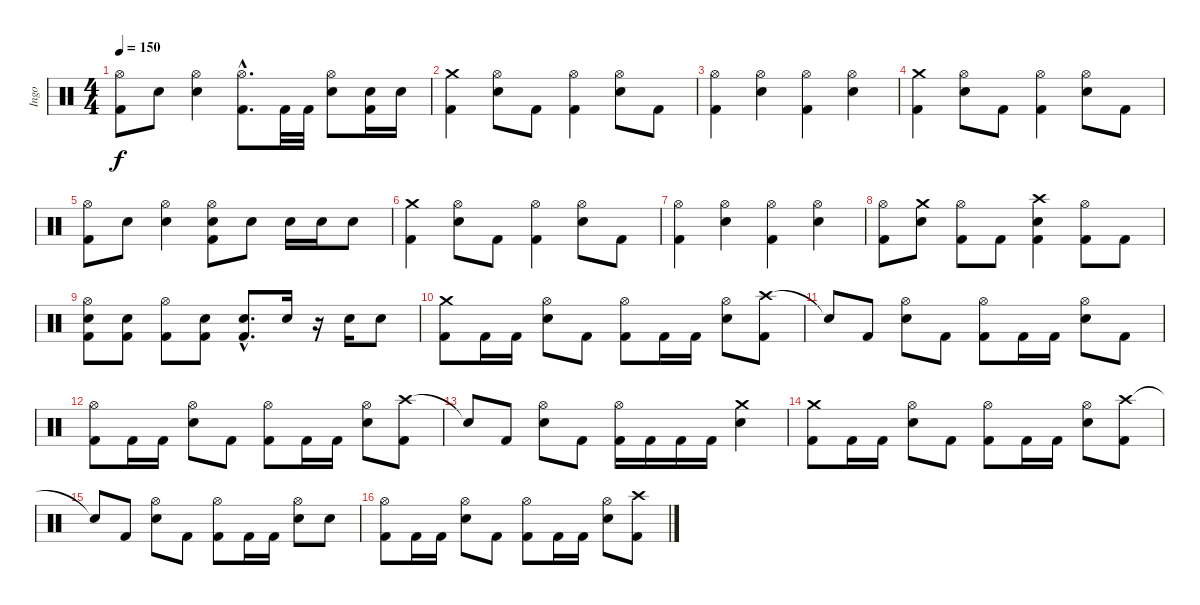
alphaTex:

\track ("Ingo" "Ingo") {instrument percussion}
\staff {score}
\articulation defaults
\ts (4 4)
\tempo 150
\clef neutral
\ks c
("Hi-Hat (open)" "Kick (hit) 2").8{dy f} "Electric Snare (hit)".8 ("Hi-Hat (open)" "Electric Snare (hit)").4 ("Hi-Hat (open)"{hac} "Kick (hit) 2"{hac}).8{d} "Kick (hit) 2".32 "Kick (hit) 2".32 ("Hi-Hat (open)" "Electric Snare (hit)").8 ("Electric Snare (hit)" "Kick (hit) 2").16 "Electric Snare (hit)".16 |
("Crash medium (hit)" "Kick (hit) 2").4 ("Hi-Hat (open)" "Electric Snare (hit)").8 "Kick (hit) 2".8 ("Hi-Hat (open)" "Kick (hit) 2").4 ("Hi-Hat (open)" "Electric Snare (hit)").8 "Kick (hit) 2".8 |
("Hi-Hat (open)" "Kick (hit) 2").4 ("Hi-Hat (open)" "Electric Snare (hit)").4 ("Hi-Hat (open)" "Kick (hit) 2").4 ("Hi-Hat (open)" "Electric Snare (hit)").4 |
("Crash medium (hit)" "Kick (hit) 2").4 ("Hi-Hat (open)" "Electric Snare (hit)").8 "Kick (hit) 2".8 ("Hi-Hat (open)" "Kick (hit) 2").4 ("Hi-Hat (open)" "Electric Snare (hit)").8 "Kick (hit) 2".8 |
("Hi-Hat (open)" "Kick (hit) 2").8 "Electric Snare (hit)".8 ("Hi-Hat (open)" "Electric Snare (hit)").4 ("Hi-Hat (open)" "Electric Snare (hit)" "Kick (hit) 2").8 "Electric Snare (hit)".8 "Electric Snare (hit)".16 "Electric Snare (hit)".16 "Electric Snare (hit)".8 |
("Crash medium (hit)" "Kick (hit) 2").4 ("Hi-Hat (open)" "Electric Snare (hit)").8 "Kick (hit) 2".8 ("Hi-Hat (open)" "Kick (hit) 2").4 ("Hi-Hat (open)" "Electric Snare (hit)").8 "Kick (hit) 2".8 |
("Hi-Hat (open)" "Kick (hit) 2").4 ("Hi-Hat (open)" "Electric Snare (hit)").4 ("Hi-Hat (open)" "Kick (hit) 2").4 ("Hi-Hat (open)" "Electric Snare (hit)").4 |
("Hi-Hat (open)" "Kick (hit) 2").8 ("Crash medium (hit)" "Electric Snare (hit)").8 ("Hi-Hat (open)" "Kick (hit) 2").8 "Kick (hit) 2".8 ("Crash high (hit)" "Electric Snare (hit)" "Kick (hit) 2").4 ("Hi-Hat (open)" "Kick (hit) 2").8 "Kick (hit) 2".8 |
("Hi-Hat (open)" "Electric Snare (hit)" "Kick (hit) 2").8 ("Electric Snare (hit)" "Kick (hit) 2").8 ("Hi-Hat (open)" "Kick (hit) 2").8 ("Electric Snare (hit)" "Kick (hit) 2").8 ("Electric Snare (hit)"{hac} "Kick (hit) 2"{hac}).8{d} "Electric Snare (hit)".16 r.16 "Electric Snare (hit)".16 "Electric Snare (hit)".8 |
("Crash medium (hit)" "Kick (hit) 2").8 "Kick (hit) 2".16 "Kick (hit) 2".16 ("Hi-Hat (open)" "Electric Snare (hit)").8 "Kick (hit) 2".8 ("Hi-Hat (open)" "Kick (hit) 2").8 "Kick (hit) 2".16 "Kick (hit) 2".16 ("Hi-Hat (open)" "Electric Snare (hit)").8 ("Crash high (hit)" "Kick (hit) 2").8 |
"Snare (hit)"{t}.8 "Kick (hit) 2".8 ("Hi-Hat (open)" "Electric Snare (hit)").8 "Kick (hit) 2".8 ("Hi-Hat (open)" "Kick (hit) 2").8 "Kick (hit) 2".16 "Kick (hit) 2".16 ("Hi-Hat (open)" "Electric Snare (hit)").8 "Kick (hit) 2".8 |
("Hi-Hat (open)" "Kick (hit) 2").8 "Kick (hit) 2".16 "Kick (hit) 2".16 ("Hi-Hat (open)" "Electric Snare (hit)").8 "Kick (hit) 2".8 ("Hi-Hat (open)" "Kick (hit) 2").8 "Kick (hit) 2".16 "Kick (hit) 2".16 ("Hi-Hat (open)" "Electric Snare (hit)").8 ("Crash high (hit)" "Kick (hit) 2").8 |
"Snare (hit)"{t}.8 "Kick (hit) 2".8 ("Hi-Hat (open)" "Electric Snare (hit)").8 "Kick (hit) 2".8 ("Hi-Hat (open)" "Kick (hit) 2").16 "Kick (hit) 2".16 "Kick (hit) 2".16 "Kick (hit) 2".16 ("Crash medium (hit)" "Electric Snare (hit)").4 |
("Crash medium (hit)" "Kick (hit) 2").8 "Kick (hit) 2".16 "Kick (hit) 2".16 ("Hi-Hat (open)" "Electric Snare (hit)").8 "Kick (hit) 2".8 ("Hi-Hat (open)" "Kick (hit) 2").8 "Kick (hit) 2".16 "Kick (hit) 2".16 ("Hi-Hat (open)" "Electric Snare (hit)").8 ("Crash high (hit)" "Kick (hit) 2").8 |
"Snare (hit)"{t}.8 "Kick (hit) 2".8 ("Hi-Hat (open)" "Electric Snare (hit)").8 "Kick (hit) 2".8 ("Hi-Hat (open)" "Kick (hit) 2").8 "Kick (hit) 2".16 "Kick (hit) 2".16 ("Hi-Hat (open)" "Electric Snare (hit)").8 "Electric Snare (hit)".8 |
("Hi-Hat (open)" "Kick (hit) 2").8 "Kick (hit) 2".16 "Kick (hit) 2".16 ("Hi-Hat (open)" "Electric Snare (hit)").8 "Kick (hit) 2".8 ("Hi-Hat (open)" "Kick (hit) 2").8 "Kick (hit) 2".16 "Kick (hit) 2".16 ("Hi-Hat (open)" "Electric Snare (hit)").8 ("Crash high (hit)" "Kick (hit) 2").8
